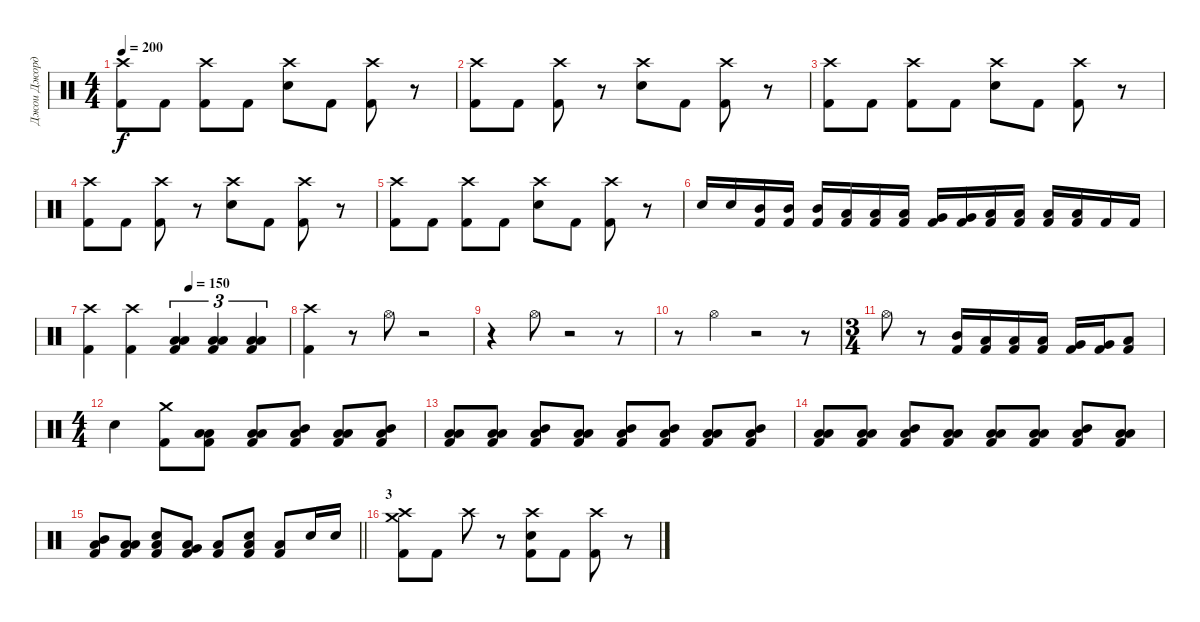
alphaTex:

\track ("Джои Джордисон" "Джои Джорд") {instrument percussion}
\staff {score}
\articulation defaults
\ts (4 4)
\tempo 200
\clef neutral
\ks c
("Crash high (hit)" "Kick (hit) 2").8{dy f} "Kick (hit) 2".8 ("Crash high (hit)" "Kick (hit) 2").8 "Kick (hit) 2".8 ("Crash high (hit)" "Electric Snare (hit)").8 "Kick (hit) 2".8 ("Crash high (hit)" "Kick (hit) 2").8 r.8 |
("Crash high (hit)" "Kick (hit) 2").8 "Kick (hit) 2".8 ("Crash high (hit)" "Kick (hit) 2").8 r.8 ("Crash high (hit)" "Electric Snare (hit)").8 "Kick (hit) 2".8 ("Crash high (hit)" "Kick (hit) 2").8 r.8 |
("Crash high (hit)" "Kick (hit) 2").8 "Kick (hit) 2".8 ("Crash high (hit)" "Kick (hit) 2").8 "Kick (hit) 2".8 ("Crash high (hit)" "Electric Snare (hit)").8 "Kick (hit) 2".8 ("Crash high (hit)" "Kick (hit) 2").8 r.8 |
("Crash high (hit)" "Kick (hit) 2").8 "Kick (hit) 2".8 ("Crash high (hit)" "Kick (hit) 2").8 r.8 ("Crash high (hit)" "Electric Snare (hit)").8 "Kick (hit) 2".8 ("Crash high (hit)" "Kick (hit) 2").8 r.8 |
("Crash high (hit)" "Kick (hit) 2").8 "Kick (hit) 2".8 ("Crash high (hit)" "Kick (hit) 2").8 "Kick (hit) 2".8 ("Crash high (hit)" "Electric Snare (hit)").8 "Kick (hit) 2".8 ("Crash high (hit)" "Kick (hit) 2").8 r.8 |
"Electric Snare (hit)".16 "Electric Snare (hit)".16 ("Mid Tom (hit)" "Kick (hit) 2").16 ("Mid Tom (hit)" "Kick (hit) 2").16 ("Mid Tom (hit)" "Kick (hit) 2").16 ("Low Tom (hit)" "Kick (hit) 2").16 ("Low Tom (hit)" "Kick (hit) 2").16 ("Low Tom (hit)" "Kick (hit) 2").16 ("Very Low Tom (hit)" "Kick (hit) 2").16 ("Very Low Tom (hit)" "Kick (hit) 2").16 ("Low Floor Tom (hit)" "Kick (hit) 2").16 ("Low Floor Tom (hit)" "Kick (hit) 2").16 ("Low Floor Tom (hit)" "Kick (hit) 2").16 ("Low Floor Tom (hit)" "Kick (hit) 2").16 "Kick (hit) 2".16 "Kick (hit) 2".16 |
\tempo (150 0.5)
("Crash high (hit)" "Kick (hit) 2").4 ("Crash high (hit)" "Kick (hit) 2").4 ("Low Floor Tom (hit)" "Low Tom (hit)" "Kick (hit) 2").4{tu (3 2)} ("Low Floor Tom (hit)" "Low Tom (hit)" "Kick (hit) 2").4{tu (3 2)} ("Low Floor Tom (hit)" "Low Tom (hit)" "Kick (hit) 2").4{tu (3 2)} |
("Crash high (hit)" "Kick (hit) 2").4 r.8 "Hi-Hat (open)".8 r.2 |
r.4 "Hi-Hat (open)".8 r.2 r.8 |
r.8 "Hi-Hat (open)".4 r.2 r.8 |
\ts (3 4)
"Hi-Hat (open)".8 r.8 ("Mid Tom (hit)" "Kick (hit) 2").16 ("Low Tom (hit)" "Kick (hit) 2").16 ("Low Tom (hit)" "Kick (hit) 2").16 ("Low Tom (hit)" "Kick (hit) 2").16 ("Very Low Tom (hit)" "Kick (hit) 2").16 ("Very Low Tom (hit)" "Kick (hit) 2").16 ("Low Floor Tom (hit)" "Kick (hit) 2").8 |
\ts (4 4)
"Electric Snare (hit)".4 ("Crash medium (hit)" "Kick (hit) 2").8 ("Low Floor Tom (hit)" "Low Tom (hit)" "Kick (hit) 2").8 ("Low Floor Tom (hit)" "Low Tom (hit)" "Kick (hit) 2").8 ("Low Floor Tom (hit)" "Mid Tom (hit)" "Kick (hit) 2").8 ("Low Floor Tom (hit)" "Low Tom (hit)" "Kick (hit) 2").8 ("Low Floor Tom (hit)" "Mid Tom (hit)" "Kick (hit) 2").8 |
("Low Floor Tom (hit)" "Low Tom (hit)" "Kick (hit) 2").8 ("Low Floor Tom (hit)" "Low Tom (hit)" "Kick (hit) 2").8 ("Low Floor Tom (hit)" "Mid Tom (hit)" "Kick (hit) 2").8 ("Low Floor Tom (hit)" "Low Tom (hit)" "Kick (hit) 2").8 ("Low Floor Tom (hit)" "Mid Tom (hit)" "Kick (hit) 2").8 ("Low Floor Tom (hit)" "Mid Tom (hit)" "Kick (hit) 2").8 ("Low Floor Tom (hit)" "Low Tom (hit)" "Kick (hit) 2").8 ("Low Floor Tom (hit)" "Mid Tom (hit)" "Kick (hit) 2").8 |
("Low Floor Tom (hit)" "Low Tom (hit)" "Kick (hit) 2").8 ("Low Floor Tom (hit)" "Low Tom (hit)" "Kick (hit) 2").8 ("Low Floor Tom (hit)" "Mid Tom (hit)" "Kick (hit) 2").8 ("Low Floor Tom (hit)" "Low Tom (hit)" "Kick (hit) 2").8 ("Low Floor Tom (hit)" "Low Tom (hit)" "Kick (hit) 2").8 ("Low Floor Tom (hit)" "Low Tom (hit)" "Kick (hit) 2").8 ("Low Floor Tom (hit)" "Mid Tom (hit)" "Kick (hit) 2").8 ("Low Floor Tom (hit)" "Low Tom (hit)" "Kick (hit) 2").8 |
\barLineRight lightlight
("Low Floor Tom (hit)" "Mid Tom (hit)" "Kick (hit) 2").8 ("Low Floor Tom (hit)" "Low Tom (hit)" "Kick (hit) 2").8 ("Low Floor Tom (hit)" "Electric Snare (hit)" "Kick (hit) 2").8 ("Low Floor Tom (hit)" "Very Low Tom (hit)" "Kick (hit) 2").8 ("Low Floor Tom (hit)" "Kick (hit) 2").8 ("Low Floor Tom (hit)" "Electric Snare (hit)" "Kick (hit) 2").8 ("Low Floor Tom (hit)" "Kick (hit) 2").8 "Electric Snare (hit)".16 "Electric Snare (hit)".16 |
\section ("" "3")
("Crash high (hit)" "Crash medium (hit)" "Kick (hit) 2").8 "Kick (hit) 2".8 "Crash high (hit)".8 r.8 ("Crash high (hit)" "Electric Snare (hit)" "Kick (hit) 2").8 "Kick (hit) 2".8 ("Crash high (hit)" "Kick (hit) 2").8 r.8
